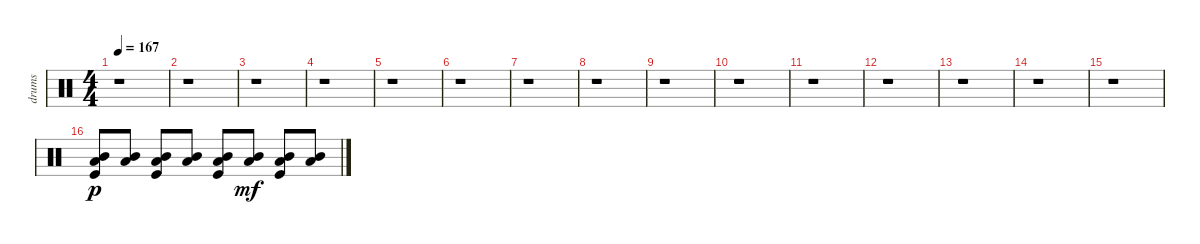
\track ("drums" "drums") {instrument percussion}
\staff {score}
\articulation defaults
\ts (4 4)
\tempo 167
\clef neutral
\ks c
r.1{dy fff} |
r.1 |
r.1 |
r.1 |
r.1 |
r.1 |
r.1 |
r.1 |
r.1 |
r.1 |
r.1 |
r.1 |
r.1 |
r.1 |
r.1 |
("Kick (hit)" "Low Tom (hit)" "Mid Tom (hit)").8{dy p} ("Low Tom (hit)" "Mid Tom (hit)").8 ("Kick (hit)" "Low Tom (hit)" "Mid Tom (hit)").8 ("Low Tom (hit)" "Mid Tom (hit)").8 ("Kick (hit)" "Low Tom (hit)" "Mid Tom (hit)").8 ("Low Tom (hit)" "Mid Tom (hit)").8{dy mf} ("Kick (hit)" "Low Tom (hit)" "Mid Tom (hit)").8 ("Mid Tom (hit)" "Low Tom (hit)").8
